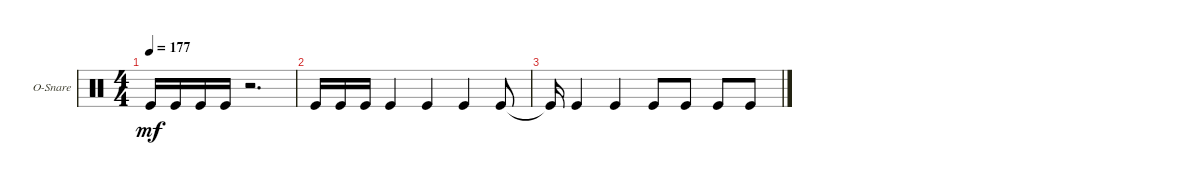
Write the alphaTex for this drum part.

\defaultSystemsLayout 4
\bracketExtendMode groupsimilarinstruments
\firstSystemTrackNameOrientation horizontal
\otherSystemsTrackNameOrientation horizontal
\track ("Johnny Kelly" "O-Snare") {instrument percussion}
\staff {score}
\articulation defaults
\ts (4 4)
\scale
0.0842771
\tempo 177
\accidentals auto
\clef neutral
\ottava regular
\simile none
\ks c "Kick (hit)".16{dy mf} "Kick (hit)".16 "Kick (hit)".16 "Kick (hit)".16
r.2{d} |
\scale
0.124062 "Kick (hit)".16 "Kick (hit)".16 "Kick (hit)".16 "Kick (hit)".4 "Kick (hit)".4 "Kick (hit)".4 "Kick (hit)".8 |
\scale
0.425454 "Kick (hit)"{t}.16 "Kick (hit)".4 "Kick (hit)".4 "Kick (hit)".8 "Kick (hit)".8 "Kick (hit)".8 "Kick (hit)".8 |
\scale
0.365556
